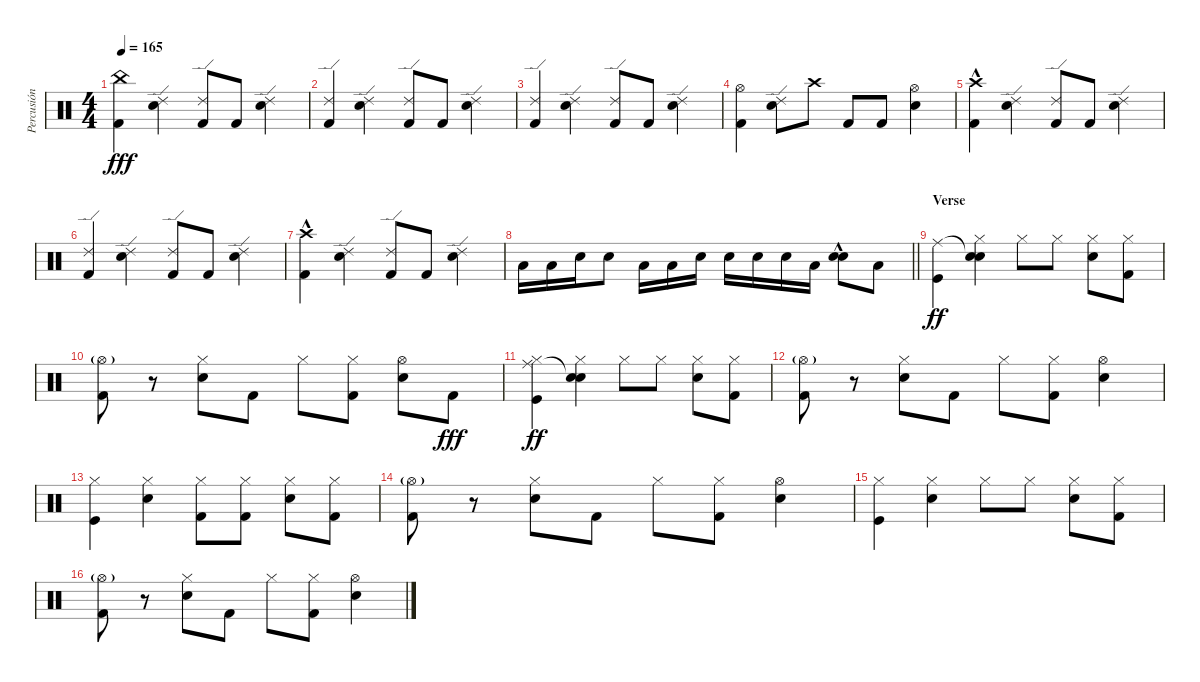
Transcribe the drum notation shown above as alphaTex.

\track ("Percusión" "Percusión") {instrument percussion}
\staff {score}
\articulation defaults
\ts (4 4)
\tempo 165
\clef neutral
\ks c
("Kick (hit) 2" "China (hit)").4{dy fff} ("Electric Snare (hit)" "Ride (edge) 2").4 ("Kick (hit) 2" "Ride (edge) 2").8 "Kick (hit) 2".8 ("Electric Snare (hit)" "Ride (edge) 2").4 |
("Kick (hit) 2" "Ride (edge) 2").4 ("Electric Snare (hit)" "Ride (edge) 2").4 ("Kick (hit) 2" "Ride (edge) 2").8 "Kick (hit) 2".8 ("Electric Snare (hit)" "Ride (edge) 2").4 |
("Kick (hit) 2" "Ride (edge) 2").4 ("Electric Snare (hit)" "Ride (edge) 2").4 ("Kick (hit) 2" "Ride (edge) 2").8 "Kick (hit) 2".8 ("Electric Snare (hit)" "Ride (edge) 2").4 |
("Kick (hit) 2" "Hi-Hat (open)").4 ("Electric Snare (hit)" "Ride (edge) 2").8 "Crash high (hit)".8 "Kick (hit) 2".8 "Kick (hit) 2".8 ("Electric Snare (hit)" "Hi-Hat (open)").4 |
("Kick (hit) 2" "Crash high (hit)"{hac}).4 ("Electric Snare (hit)" "Ride (edge) 2").4 ("Kick (hit) 2" "Ride (edge) 2").8 "Kick (hit) 2".8 ("Electric Snare (hit)" "Ride (edge) 2").4 |
("Kick (hit) 2" "Ride (edge) 2").4 ("Electric Snare (hit)" "Ride (edge) 2").4 ("Kick (hit) 2" "Ride (edge) 2").8 "Kick (hit) 2".8 ("Electric Snare (hit)" "Ride (edge) 2").4 |
("Kick (hit) 2" "Crash high (hit)"{hac}).4 ("Electric Snare (hit)" "Ride (edge) 2").4 ("Kick (hit) 2" "Ride (edge) 2").8 "Kick (hit) 2".8 ("Electric Snare (hit)" "Ride (edge) 2").4 |
\barLineRight lightlight "Low Tom (hit)".16 "Low Tom (hit)".16 "Electric Snare (hit)".16 "Electric Snare (hit)".8 "Low Tom (hit)".16 "Low Tom (hit)".16 "Electric Snare (hit)".16 "Electric Snare (hit)".16 "Electric Snare (hit)".16 "Electric Snare (hit)".16 "Low Tom (hit)".16
("Electric Snare (hit)"{hac} "Snare (hit) 2").8 "Low Tom (hit)".8 |
\section ("" "Verse")
("Kick (hit)" "Ride (middle)").4{dy ff} ("Electric Snare (hit)" "Snare (hit)"{t} "Hi-Hat (closed)").4 "Hi-Hat (closed)".8 "Hi-Hat (closed)".8 ("Electric Snare (hit)" "Hi-Hat (closed)").8 ("Kick (hit) 2" "Hi-Hat (closed)").8 |
("Kick (hit) 2" "Hi-Hat (open)"{g}).8 r.8 ("Electric Snare (hit)" "Hi-Hat (closed)").8 "Kick (hit) 2".8 "Hi-Hat (closed)".8 ("Kick (hit) 2" "Hi-Hat (closed)").8 ("Electric Snare (hit)" "Hi-Hat (open)").8 "Kick (hit) 2".8{dy fff} |
("Kick (hit)" "Ride (middle)" "Hi-Hat (closed)").4{dy ff} ("Electric Snare (hit)" "Snare (hit)"{t} "Hi-Hat (closed)").4 "Hi-Hat (closed)".8 "Hi-Hat (closed)".8 ("Electric Snare (hit)" "Hi-Hat (closed)").8 ("Kick (hit) 2" "Hi-Hat (closed)").8 |
("Kick (hit) 2" "Hi-Hat (open)"{g}).8 r.8 ("Electric Snare (hit)" "Hi-Hat (closed)").8 "Kick (hit) 2".8 "Hi-Hat (closed)".8 ("Kick (hit) 2" "Hi-Hat (closed)").8 ("Electric Snare (hit)" "Hi-Hat (open)").4 |
("Kick (hit)" "Hi-Hat (closed)").4 ("Electric Snare (hit)" "Hi-Hat (closed)").4 ("Kick (hit) 2" "Hi-Hat (closed)").8 ("Kick (hit) 2" "Hi-Hat (closed)").8 ("Electric Snare (hit)" "Hi-Hat (closed)").8 ("Kick (hit) 2" "Hi-Hat (closed)").8 |
("Kick (hit) 2" "Hi-Hat (open)"{g}).8 r.8 ("Electric Snare (hit)" "Hi-Hat (closed)").8 "Kick (hit) 2".8 "Hi-Hat (closed)".8 ("Kick (hit) 2" "Hi-Hat (closed)").8 ("Electric Snare (hit)" "Hi-Hat (open)").4 |
("Kick (hit)" "Hi-Hat (closed)").4 ("Electric Snare (hit)" "Hi-Hat (closed)").4 "Hi-Hat (closed)".8 "Hi-Hat (closed)".8 ("Electric Snare (hit)" "Hi-Hat (closed)").8 ("Kick (hit) 2" "Hi-Hat (closed)").8 |
("Kick (hit) 2" "Hi-Hat (open)"{g}).8 r.8 ("Electric Snare (hit)" "Hi-Hat (closed)").8 "Kick (hit) 2".8 "Hi-Hat (closed)".8 ("Kick (hit) 2" "Hi-Hat (closed)").8 ("Electric Snare (hit)" "Hi-Hat (open)").4
